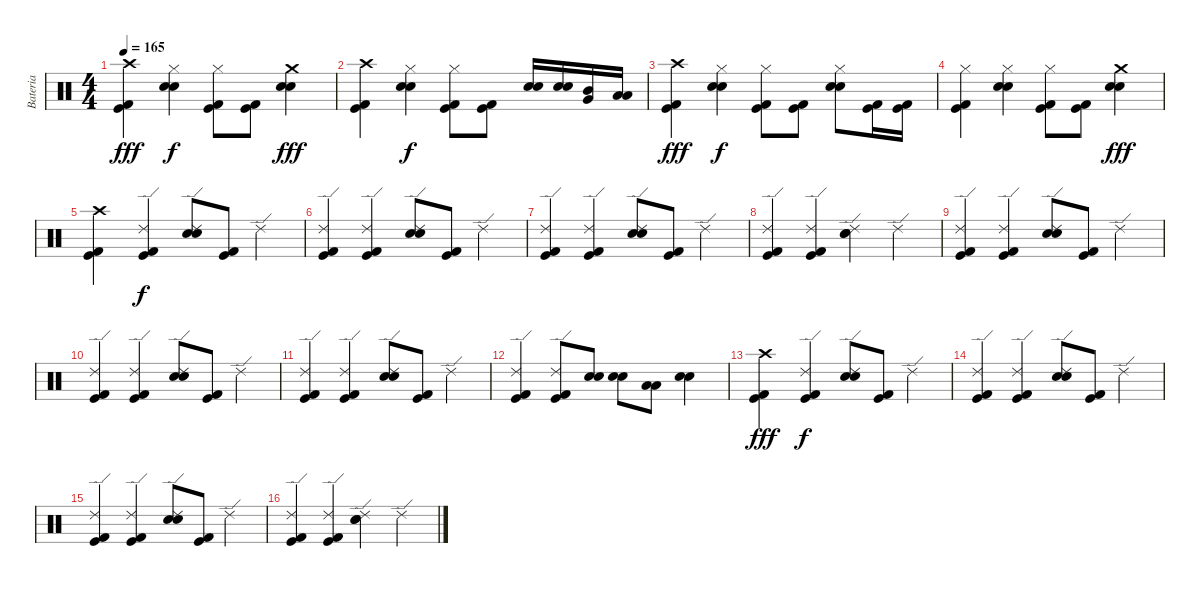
\track ("Bateria" "Bateria") {instrument percussion}
\staff {score}
\articulation defaults
\ts (4 4)
\tempo 165
\clef neutral
\ks c
("Crash high (hit)" "Kick (hit) 2" "Kick (hit)").4{dy fff} ("Hi-Hat (closed)" "Electric Snare (hit)" "Snare (hit) 2").4{dy f} ("Hi-Hat (closed)" "Kick (hit) 2" "Kick (hit)").8 ("Kick (hit) 2" "Kick (hit)").8 ("Crash medium (hit)" "Electric Snare (hit)" "Snare (hit) 2").4{dy fff} |
("Crash high (hit)" "Kick (hit) 2" "Kick (hit)").4 ("Hi-Hat (closed)" "Electric Snare (hit)" "Snare (hit) 2").4{dy f} ("Hi-Hat (closed)" "Kick (hit) 2" "Kick (hit)").8 ("Kick (hit) 2" "Kick (hit)").8 ("Electric Snare (hit)" "Snare (hit) 2").16 ("Electric Snare (hit)" "Snare (hit) 2").16 ("Mid Tom (hit)" "Very Low Tom (hit)").16 ("Low Tom (hit)" "Low Floor Tom (hit)").16 |
("Crash high (hit)" "Kick (hit) 2" "Kick (hit)").4{dy fff} ("Hi-Hat (closed)" "Electric Snare (hit)" "Snare (hit) 2").4{dy f} ("Hi-Hat (closed)" "Kick (hit) 2" "Kick (hit)").8 ("Kick (hit) 2" "Kick (hit)").8 ("Hi-Hat (closed)" "Electric Snare (hit)" "Snare (hit) 2").8 ("Kick (hit) 2" "Kick (hit)").16 ("Kick (hit) 2" "Kick (hit)").16 |
("Hi-Hat (closed)" "Kick (hit) 2" "Kick (hit)").4 ("Hi-Hat (closed)" "Electric Snare (hit)" "Snare (hit) 2").4 ("Hi-Hat (closed)" "Kick (hit) 2" "Kick (hit)").8 ("Kick (hit) 2" "Kick (hit)").8 ("Crash medium (hit)" "Electric Snare (hit)" "Snare (hit) 2").4{dy fff} |
("Crash high (hit)" "Kick (hit) 2" "Kick (hit)").4 ("Ride (edge) 2" "Kick (hit) 2" "Kick (hit)").4{dy f} ("Ride (edge) 2" "Electric Snare (hit)" "Snare (hit) 2").8 ("Kick (hit) 2" "Kick (hit)").8 "Ride (edge) 2".4 |
("Ride (edge) 2" "Kick (hit) 2" "Kick (hit)").4 ("Ride (edge) 2" "Kick (hit) 2" "Kick (hit)").4 ("Ride (edge) 2" "Electric Snare (hit)" "Snare (hit) 2").8 ("Kick (hit) 2" "Kick (hit)").8 "Ride (edge) 2".4 |
("Ride (edge) 2" "Kick (hit) 2" "Kick (hit)").4 ("Ride (edge) 2" "Kick (hit) 2" "Kick (hit)").4 ("Ride (edge) 2" "Electric Snare (hit)" "Snare (hit) 2").8 ("Kick (hit) 2" "Kick (hit)").8 "Ride (edge) 2".4 |
("Ride (edge) 2" "Kick (hit) 2" "Kick (hit)").4 ("Ride (edge) 2" "Kick (hit) 2" "Kick (hit)").4 ("Ride (edge) 2" "Electric Snare (hit)" "Snare (hit) 2").4 "Ride (edge) 2".4 |
("Ride (edge) 2" "Kick (hit) 2" "Kick (hit)").4 ("Ride (edge) 2" "Kick (hit) 2" "Kick (hit)").4 ("Ride (edge) 2" "Electric Snare (hit)" "Snare (hit) 2").8 ("Kick (hit) 2" "Kick (hit)").8 "Ride (edge) 2".4 |
("Ride (edge) 2" "Kick (hit) 2" "Kick (hit)").4 ("Ride (edge) 2" "Kick (hit) 2" "Kick (hit)").4 ("Ride (edge) 2" "Electric Snare (hit)" "Snare (hit) 2").8 ("Kick (hit) 2" "Kick (hit)").8 "Ride (edge) 2".4 |
("Ride (edge) 2" "Kick (hit) 2" "Kick (hit)").4 ("Ride (edge) 2" "Kick (hit) 2" "Kick (hit)").4 ("Ride (edge) 2" "Electric Snare (hit)" "Snare (hit) 2").8 ("Kick (hit) 2" "Kick (hit)").8 "Ride (edge) 2".4 |
("Ride (edge) 2" "Kick (hit) 2" "Kick (hit)").4 ("Ride (edge) 2" "Kick (hit) 2" "Kick (hit)").8 ("Electric Snare (hit)" "Snare (hit) 2").8 ("Electric Snare (hit)" "Snare (hit) 2").8 ("Low Tom (hit)" "Low Floor Tom (hit)").8 ("Electric Snare (hit)" "Snare (hit) 2").4 |
("Crash high (hit)" "Kick (hit) 2" "Kick (hit)").4{dy fff} ("Ride (edge) 2" "Kick (hit) 2" "Kick (hit)").4{dy f} ("Ride (edge) 2" "Electric Snare (hit)" "Snare (hit) 2").8 ("Kick (hit) 2" "Kick (hit)").8 "Ride (edge) 2".4 |
("Ride (edge) 2" "Kick (hit) 2" "Kick (hit)").4 ("Ride (edge) 2" "Kick (hit) 2" "Kick (hit)").4 ("Ride (edge) 2" "Electric Snare (hit)" "Snare (hit) 2").8 ("Kick (hit) 2" "Kick (hit)").8 "Ride (edge) 2".4 |
("Ride (edge) 2" "Kick (hit) 2" "Kick (hit)").4 ("Ride (edge) 2" "Kick (hit) 2" "Kick (hit)").4 ("Ride (edge) 2" "Electric Snare (hit)" "Snare (hit) 2").8 ("Kick (hit) 2" "Kick (hit)").8 "Ride (edge) 2".4 |
("Ride (edge) 2" "Kick (hit) 2" "Kick (hit)").4 ("Ride (edge) 2" "Kick (hit) 2" "Kick (hit)").4 ("Ride (edge) 2" "Electric Snare (hit)" "Snare (hit) 2").4 "Ride (edge) 2".4
